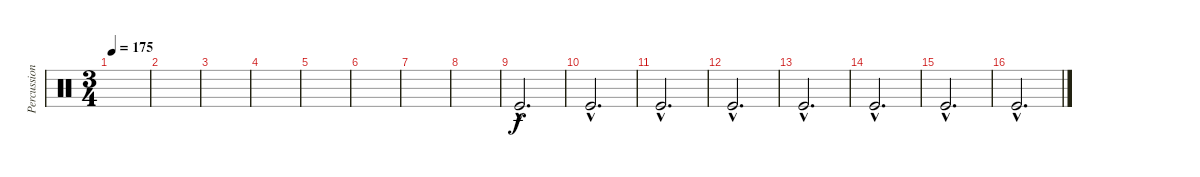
\track ("Percussion" "Percussion") {instrument percussion}
\staff {score}
\articulation defaults
\ts (3 4)
\tempo 175
\clef neutral
\ks c
|
|
|
|
|
|
|
|
"Kick (hit)"{hac}.2{d} |
"Kick (hit)"{hac}.2{d} |
"Kick (hit)"{hac}.2{d} |
"Kick (hit)"{hac}.2{d} |
"Kick (hit)"{hac}.2{d} |
"Kick (hit)"{hac}.2{d} |
"Kick (hit)"{hac}.2{d} |
"Kick (hit)"{hac}.2{d}
